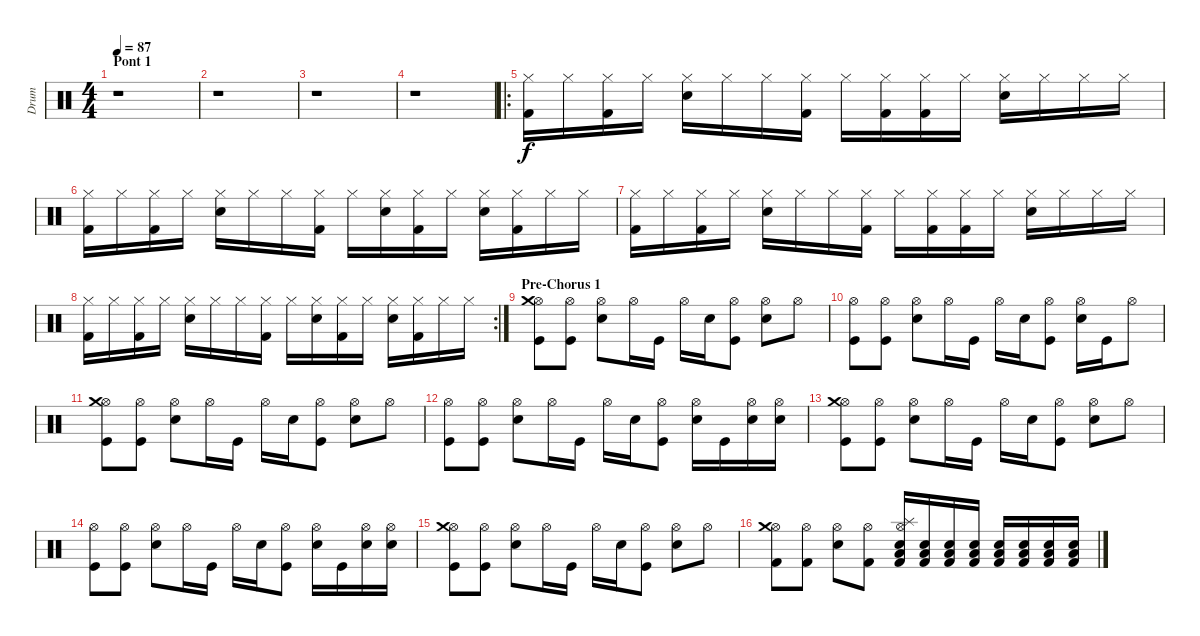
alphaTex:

\track ("Drum" "Drum") {instrument percussion}
\staff {score}
\articulation defaults
\ts (4 4)
\section ("" "Pont 1")
\tempo 87
\clef neutral
\ks c
r.1{dy f} |
r.1 |
r.1 |
r.1 |
\ro
("Hi-Hat (closed)" "Kick (hit) 2").16 "Hi-Hat (closed)".16 ("Hi-Hat (closed)" "Kick (hit) 2").16 "Hi-Hat (closed)".16 ("Hi-Hat (closed)" "Snare (hit) 2").16 "Hi-Hat (closed)".16 "Hi-Hat (closed)".16 ("Hi-Hat (closed)" "Kick (hit) 2").16 "Hi-Hat (closed)".16 ("Hi-Hat (closed)" "Kick (hit) 2").16 ("Hi-Hat (closed)" "Kick (hit) 2").16 "Hi-Hat (closed)".16 ("Hi-Hat (closed)" "Snare (hit) 2").16 "Hi-Hat (closed)".16 "Hi-Hat (closed)".16 "Hi-Hat (closed)".16 |
("Hi-Hat (closed)" "Kick (hit) 2").16 "Hi-Hat (closed)".16 ("Hi-Hat (closed)" "Kick (hit) 2").16 "Hi-Hat (closed)".16 ("Hi-Hat (closed)" "Snare (hit) 2").16 "Hi-Hat (closed)".16 "Hi-Hat (closed)".16 ("Hi-Hat (closed)" "Kick (hit) 2").16 "Hi-Hat (closed)".16 ("Hi-Hat (closed)" "Snare (hit) 2").16 ("Hi-Hat (closed)" "Kick (hit) 2").16 "Hi-Hat (closed)".16 ("Hi-Hat (closed)" "Snare (hit) 2").16 ("Hi-Hat (closed)" "Kick (hit) 2").16 "Hi-Hat (closed)".16 "Hi-Hat (closed)".16 |
("Hi-Hat (closed)" "Kick (hit) 2").16 "Hi-Hat (closed)".16 ("Hi-Hat (closed)" "Kick (hit) 2").16 "Hi-Hat (closed)".16 ("Hi-Hat (closed)" "Snare (hit) 2").16 "Hi-Hat (closed)".16 "Hi-Hat (closed)".16 ("Hi-Hat (closed)" "Kick (hit) 2").16 "Hi-Hat (closed)".16 ("Hi-Hat (closed)" "Kick (hit) 2").16 ("Hi-Hat (closed)" "Kick (hit) 2").16 "Hi-Hat (closed)".16 ("Hi-Hat (closed)" "Snare (hit) 2").16 "Hi-Hat (closed)".16 "Hi-Hat (closed)".16 "Hi-Hat (closed)".16 |
\rc 2
("Hi-Hat (closed)" "Kick (hit) 2").16 "Hi-Hat (closed)".16 ("Hi-Hat (closed)" "Kick (hit) 2").16 "Hi-Hat (closed)".16 ("Hi-Hat (closed)" "Snare (hit) 2").16 "Hi-Hat (closed)".16 "Hi-Hat (closed)".16 ("Hi-Hat (closed)" "Kick (hit) 2").16 "Hi-Hat (closed)".16 ("Hi-Hat (closed)" "Snare (hit) 2").16 ("Hi-Hat (closed)" "Kick (hit) 2").16 "Hi-Hat (closed)".16 ("Hi-Hat (closed)" "Snare (hit) 2").16 ("Hi-Hat (closed)" "Kick (hit) 2").16 "Hi-Hat (closed)".16 "Hi-Hat (closed)".16 |
\section ("" "Pre-Chorus 1")
("Hi-Hat (open)" "Crash medium (hit)" "Kick (hit)").8 ("Hi-Hat (open)" "Kick (hit)").8 ("Hi-Hat (open)" "Snare (hit) 2").8 "Hi-Hat (open)".16 "Kick (hit)".16 "Hi-Hat (open)".16 "Snare (hit) 2".16 ("Hi-Hat (open)" "Kick (hit)").8 ("Hi-Hat (open)" "Snare (hit) 2").8 "Hi-Hat (open)".8 |
("Hi-Hat (open)" "Kick (hit)").8 ("Hi-Hat (open)" "Kick (hit)").8 ("Hi-Hat (open)" "Snare (hit) 2").8 "Hi-Hat (open)".16 "Kick (hit)".16 "Hi-Hat (open)".16 "Snare (hit) 2".16 ("Hi-Hat (open)" "Kick (hit)").8 ("Hi-Hat (open)" "Snare (hit) 2").16 "Kick (hit)".16 "Hi-Hat (open)".8 |
("Hi-Hat (open)" "Crash medium (hit)" "Kick (hit)").8 ("Hi-Hat (open)" "Kick (hit)").8 ("Hi-Hat (open)" "Snare (hit) 2").8 "Hi-Hat (open)".16 "Kick (hit)".16 "Hi-Hat (open)".16 "Snare (hit) 2".16 ("Hi-Hat (open)" "Kick (hit)").8 ("Hi-Hat (open)" "Snare (hit) 2").8 "Hi-Hat (open)".8 |
("Hi-Hat (open)" "Kick (hit)").8 ("Hi-Hat (open)" "Kick (hit)").8 ("Hi-Hat (open)" "Snare (hit) 2").8 "Hi-Hat (open)".16 "Kick (hit)".16 "Hi-Hat (open)".16 "Snare (hit) 2".16 ("Hi-Hat (open)" "Kick (hit)").8 ("Hi-Hat (open)" "Snare (hit) 2").16 "Kick (hit)".16 ("Hi-Hat (open)" "Snare (hit) 2").16 ("Hi-Hat (open)" "Snare (hit) 2").16 |
("Hi-Hat (open)" "Crash medium (hit)" "Kick (hit)").8 ("Hi-Hat (open)" "Kick (hit)").8 ("Hi-Hat (open)" "Snare (hit) 2").8 "Hi-Hat (open)".16 "Kick (hit)".16 "Hi-Hat (open)".16 "Snare (hit) 2".16 ("Hi-Hat (open)" "Kick (hit)").8 ("Hi-Hat (open)" "Snare (hit) 2").8 "Hi-Hat (open)".8 |
("Hi-Hat (open)" "Kick (hit)").8 ("Hi-Hat (open)" "Kick (hit)").8 ("Hi-Hat (open)" "Snare (hit) 2").8 "Hi-Hat (open)".16 "Kick (hit)".16 "Hi-Hat (open)".16 "Snare (hit) 2".16 ("Hi-Hat (open)" "Kick (hit)").8 ("Hi-Hat (open)" "Snare (hit) 2").16 "Kick (hit)".16 ("Hi-Hat (open)" "Snare (hit) 2").16 ("Hi-Hat (open)" "Snare (hit) 2").16 |
("Hi-Hat (open)" "Crash medium (hit)" "Kick (hit)").8 ("Hi-Hat (open)" "Kick (hit)").8 ("Hi-Hat (open)" "Snare (hit) 2").8 "Hi-Hat (open)".16 "Kick (hit)".16 "Hi-Hat (open)".16 "Snare (hit) 2".16 ("Hi-Hat (open)" "Kick (hit)").8 ("Hi-Hat (open)" "Snare (hit) 2").8 "Hi-Hat (open)".8 |
("Hi-Hat (open)" "Crash medium (hit)" "Kick (hit) 2").8 ("Hi-Hat (open)" "Kick (hit) 2").8 ("Hi-Hat (open)" "Snare (hit) 2").8 ("Hi-Hat (open)" "Kick (hit) 2").8 ("Hi-Hat (open)" "Splash (hit)" "Snare (hit) 2" "Low Tom (hit)" "Kick (hit) 2").16 ("Snare (hit) 2" "Low Tom (hit)" "Kick (hit) 2").16 ("Snare (hit) 2" "Low Tom (hit)" "Kick (hit) 2").16 ("Snare (hit) 2" "Low Tom (hit)" "Kick (hit) 2").16 ("Snare (hit) 2" "Low Tom (hit)" "Kick (hit) 2").16 ("Snare (hit) 2" "Low Tom (hit)" "Kick (hit) 2").16 ("Snare (hit) 2" "Low Tom (hit)" "Kick (hit) 2").16 ("Snare (hit) 2" "Low Tom (hit)" "Kick (hit) 2").16
